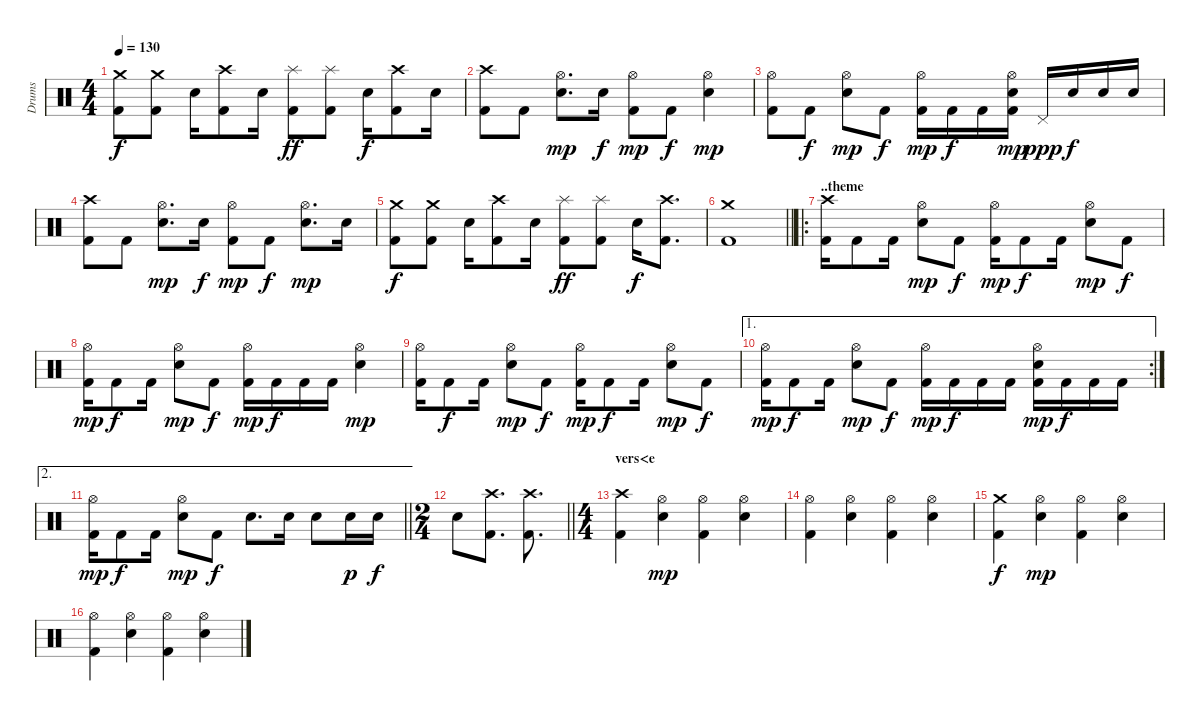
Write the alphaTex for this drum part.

\track ("Drums" "Drums") {instrument percussion}
\staff {score}
\articulation defaults
\ts (4 4)
\tempo 130
\clef neutral
\ks c
("Crash medium (hit)" "Kick (hit) 2").8{dy f} ("Crash medium (hit)" "Kick (hit) 2").8 "Electric Snare (hit)".16 ("Crash high (hit)" "Kick (hit) 2").8 "Electric Snare (hit)".16 ("Splash (hit)" "Kick (hit) 2").8{dy ff} ("Splash (hit)" "Kick (hit) 2").8 "Electric Snare (hit)".16{dy f} ("Crash high (hit)" "Kick (hit) 2").8 "Electric Snare (hit)".16 |
("Crash high (hit)" "Kick (hit) 2").8 "Kick (hit) 2".8 ("Hi-Hat (open)" "Electric Snare (hit)").8{d dy mp} "Electric Snare (hit)".16{dy f} ("Hi-Hat (open)" "Kick (hit) 2").8{dy mp} "Kick (hit) 2".8{dy f} ("Hi-Hat (open)" "Electric Snare (hit)").4{dy mp} |
("Hi-Hat (open)" "Kick (hit) 2").8 "Kick (hit) 2".8{dy f} ("Hi-Hat (open)" "Electric Snare (hit)").8{dy mp} "Kick (hit) 2".8{dy f} ("Hi-Hat (open)" "Kick (hit) 2").16{dy mp} "Kick (hit) 2".16{dy f} "Kick (hit) 2".16 ("Hi-Hat (open)" "Electric Snare (hit)" "Kick (hit) 2").16{dy mp} "Pedal Hi-Hat (hit)".16{dy ppp} "Electric Snare (hit)".16{dy f} "Electric Snare (hit)".16 "Electric Snare (hit)".16 |
("Crash high (hit)" "Kick (hit) 2").8 "Kick (hit) 2".8 ("Hi-Hat (open)" "Electric Snare (hit)").8{d dy mp} "Electric Snare (hit)".16{dy f} ("Hi-Hat (open)" "Kick (hit) 2").8{dy mp} "Kick (hit) 2".8{dy f} ("Hi-Hat (open)" "Electric Snare (hit)").8{d dy mp} "Electric Snare (hit)".16 |
("Crash medium (hit)" "Kick (hit) 2").8{dy f} ("Crash medium (hit)" "Kick (hit) 2").8 "Electric Snare (hit)".16 ("Crash high (hit)" "Kick (hit) 2").8 "Electric Snare (hit)".16 ("Splash (hit)" "Kick (hit) 2").8{dy ff} ("Splash (hit)" "Kick (hit) 2").8 "Electric Snare (hit)".16{dy f} ("Crash high (hit)" "Kick (hit) 2").8{d} |
\barLineRight lightlight
("Crash medium (hit)" "Kick (hit) 2").1 |
\ro
\section ("" "..theme")
("Crash high (hit)" "Kick (hit) 2").16 "Kick (hit) 2".8 "Kick (hit) 2".16 ("Hi-Hat (open)" "Electric Snare (hit)").8{dy mp} "Kick (hit) 2".8{dy f} ("Hi-Hat (open)" "Kick (hit) 2").16{dy mp} "Kick (hit) 2".8{dy f} "Kick (hit) 2".16 ("Hi-Hat (open)" "Electric Snare (hit)").8{dy mp} "Kick (hit) 2".8{dy f} |
("Hi-Hat (open)" "Kick (hit) 2").16{dy mp} "Kick (hit) 2".8{dy f} "Kick (hit) 2".16 ("Hi-Hat (open)" "Electric Snare (hit)").8{dy mp} "Kick (hit) 2".8{dy f} ("Hi-Hat (open)" "Kick (hit) 2").16{dy mp} "Kick (hit) 2".16{dy f} "Kick (hit) 2".16 "Kick (hit) 2".16 ("Hi-Hat (open)" "Electric Snare (hit)").4{dy mp} |
("Hi-Hat (open)" "Kick (hit) 2").16 "Kick (hit) 2".8{dy f} "Kick (hit) 2".16 ("Hi-Hat (open)" "Electric Snare (hit)").8{dy mp} "Kick (hit) 2".8{dy f} ("Hi-Hat (open)" "Kick (hit) 2").16{dy mp} "Kick (hit) 2".8{dy f} "Kick (hit) 2".16 ("Hi-Hat (open)" "Electric Snare (hit)").8{dy mp} "Kick (hit) 2".8{dy f} |
\ae 1
\rc 2
("Hi-Hat (open)" "Kick (hit) 2").16{dy mp} "Kick (hit) 2".8{dy f} "Kick (hit) 2".16 ("Hi-Hat (open)" "Electric Snare (hit)").8{dy mp} "Kick (hit) 2".8{dy f} ("Hi-Hat (open)" "Kick (hit) 2").16{dy mp} "Kick (hit) 2".16{dy f} "Kick (hit) 2".16 "Kick (hit) 2".16 ("Hi-Hat (open)" "Electric Snare (hit)" "Kick (hit) 2").16{dy mp} "Kick (hit) 2".16{dy f} "Kick (hit) 2".16 "Kick (hit) 2".16 |
\ae 2
\barLineRight lightlight
("Hi-Hat (open)" "Kick (hit) 2").16{dy mp} "Kick (hit) 2".8{dy f} "Kick (hit) 2".16 ("Hi-Hat (open)" "Electric Snare (hit)").8{dy mp} "Kick (hit) 2".8{dy f} "Electric Snare (hit)".8{d} "Electric Snare (hit)".16 "Electric Snare (hit)".8 "Electric Snare (hit)".16{dy p} "Electric Snare (hit)".16{dy f} |
\ts (2 4)
\barLineRight lightlight "Electric Snare (hit)".8
("Crash high (hit)" "Kick (hit) 2").8{d} ("Crash high (hit)" "Kick (hit) 2").8{d} |
\ts (4 4)
\section ("" "vers<e")
("Crash high (hit)" "Kick (hit) 2").4 ("Hi-Hat (open)" "Electric Snare (hit)").4{dy mp} ("Hi-Hat (open)" "Kick (hit) 2").4 ("Hi-Hat (open)" "Electric Snare (hit)").4 |
("Hi-Hat (open)" "Kick (hit) 2").4 ("Hi-Hat (open)" "Electric Snare (hit)").4 ("Hi-Hat (open)" "Kick (hit) 2").4 ("Hi-Hat (open)" "Electric Snare (hit)").4 |
("Crash medium (hit)" "Kick (hit) 2").4{dy f} ("Hi-Hat (open)" "Electric Snare (hit)").4{dy mp} ("Hi-Hat (open)" "Kick (hit) 2").4 ("Hi-Hat (open)" "Electric Snare (hit)").4 |
("Hi-Hat (open)" "Kick (hit) 2").4 ("Hi-Hat (open)" "Electric Snare (hit)").4 ("Hi-Hat (open)" "Kick (hit) 2").4 ("Hi-Hat (open)" "Electric Snare (hit)").4
